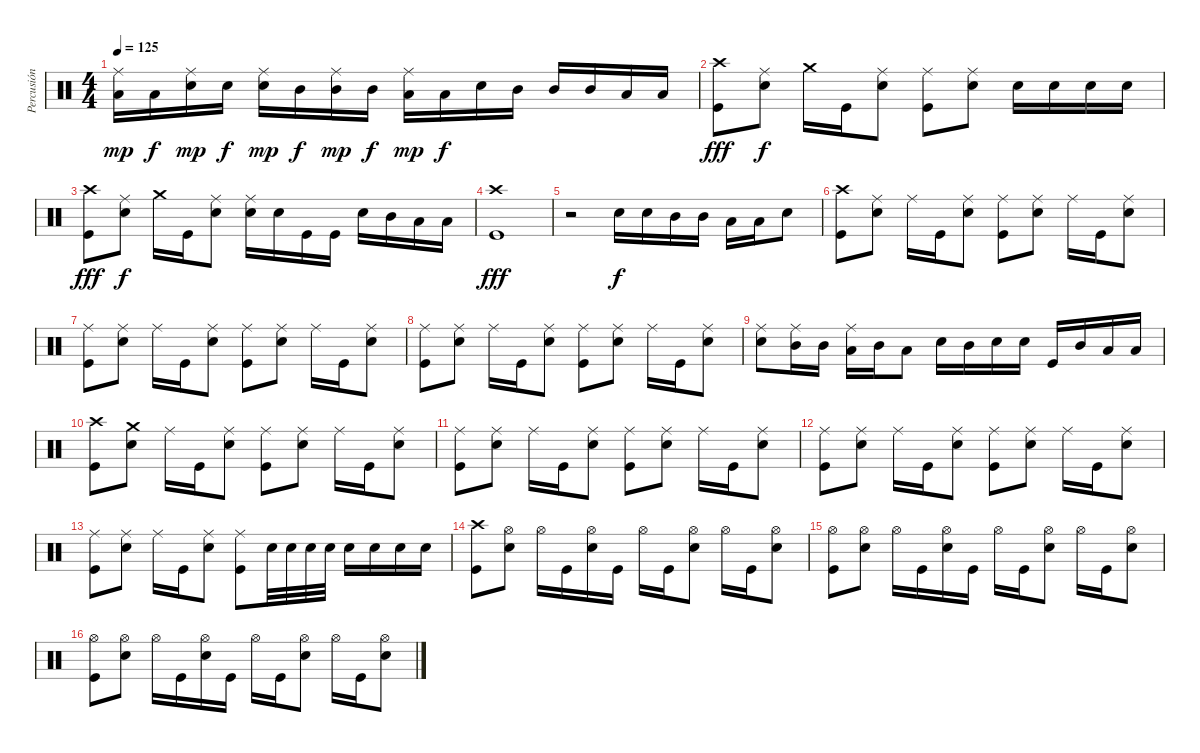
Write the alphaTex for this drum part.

\track ("Percusión" "Percusión") {instrument percussion}
\staff {score}
\articulation defaults
\ts (4 4)
\tempo 125
\clef neutral
\ks c
("Low Tom (hit)" "Ride (middle)").16{dy mp} "Low Tom (hit)".16{dy f} ("Snare (hit) 2" "Ride (middle)").16{dy mp} "Snare (hit) 2".16{dy f} ("Snare (hit) 2" "Ride (middle)").16{dy mp} "Mid Tom (hit)".16{dy f} ("Mid Tom (hit)" "Ride (middle)").16{dy mp} "Mid Tom (hit)".16{dy f} ("Low Tom (hit)" "Ride (middle)").16{dy mp} "Low Tom (hit)".16{dy f} "Snare (hit) 2".16 "Mid Tom (hit)".16 "Mid Tom (hit)".16 "Mid Tom (hit)".16 "Low Tom (hit)".16 "Low Tom (hit)".16 |
("Kick (hit)" "Crash high (hit)").8{dy fff} ("Snare (hit) 2" "Ride (middle)").8{dy f} "Crash medium (hit)".16 "Kick (hit)".16 ("Snare (hit) 2" "Ride (middle)").8 ("Kick (hit)" "Ride (middle)").8 ("Snare (hit) 2" "Ride (middle)").8 "Snare (hit) 2".16 "Snare (hit) 2".16 "Snare (hit) 2".16 "Snare (hit) 2".16 |
("Kick (hit)" "Crash high (hit)").8{dy fff} ("Snare (hit) 2" "Ride (middle)").8{dy f} "Crash medium (hit)".16 "Kick (hit)".16 ("Snare (hit) 2" "Ride (middle)").8 ("Snare (hit) 2" "Ride (middle)").16 "Snare (hit) 2".16 "Kick (hit)".16 "Kick (hit)".16 "Snare (hit) 2".16 "Mid Tom (hit)".16 "Low Tom (hit)".16 "Low Tom (hit)".16 |
("Kick (hit)" "Crash high (hit)").1{dy fff} |
r.2 "Snare (hit) 2".16{dy f} "Snare (hit) 2".16 "Mid Tom (hit)".16 "Mid Tom (hit)".16 "Low Tom (hit)".16 "Low Tom (hit)".16 "Snare (hit) 2".8 |
("Kick (hit)" "Crash high (hit)").8 ("Snare (hit) 2" "Ride (middle)").8 "Ride (middle)".16 "Kick (hit)".16 ("Snare (hit) 2" "Ride (middle)").8 ("Kick (hit)" "Ride (middle)").8 ("Snare (hit) 2" "Ride (middle)").8 "Ride (middle)".16 "Kick (hit)".16 ("Snare (hit) 2" "Ride (middle)").8 |
("Kick (hit)" "Ride (middle)").8 ("Snare (hit) 2" "Ride (middle)").8 "Ride (middle)".16 "Kick (hit)".16 ("Snare (hit) 2" "Ride (middle)").8 ("Kick (hit)" "Ride (middle)").8 ("Snare (hit) 2" "Ride (middle)").8 "Ride (middle)".16 "Kick (hit)".16 ("Snare (hit) 2" "Ride (middle)").8 |
("Kick (hit)" "Ride (middle)").8 ("Snare (hit) 2" "Ride (middle)").8 "Ride (middle)".16 "Kick (hit)".16 ("Snare (hit) 2" "Ride (middle)").8 ("Kick (hit)" "Ride (middle)").8 ("Snare (hit) 2" "Ride (middle)").8 "Ride (middle)".16 "Kick (hit)".16 ("Snare (hit) 2" "Ride (middle)").8 |
("Snare (hit) 2" "Ride (middle)").8 ("Mid Tom (hit)" "Ride (middle)").16 "Mid Tom (hit)".16 ("Low Tom (hit)" "Ride (middle)").16 "Mid Tom (hit)".16 "Low Tom (hit)".8 "Snare (hit) 2".16 "Mid Tom (hit)".16 "Snare (hit) 2".16 "Snare (hit) 2".16 "Kick (hit)".16 "Mid Tom (hit)".16 "Low Tom (hit)".16 "Low Tom (hit)".16 |
("Kick (hit)" "Crash high (hit)").8 ("Snare (hit) 2" "Crash medium (hit)").8 "Ride (middle)".16 "Kick (hit)".16 ("Snare (hit) 2" "Ride (middle)").8 ("Kick (hit)" "Ride (middle)").8 ("Snare (hit) 2" "Ride (middle)").8 "Ride (middle)".16 "Kick (hit)".16 ("Snare (hit) 2" "Ride (middle)").8 |
("Kick (hit)" "Ride (middle)").8 ("Snare (hit) 2" "Ride (middle)").8 "Ride (middle)".16 "Kick (hit)".16 ("Snare (hit) 2" "Ride (middle)").8 ("Kick (hit)" "Ride (middle)").8 ("Snare (hit) 2" "Ride (middle)").8 "Ride (middle)".16 "Kick (hit)".16 ("Snare (hit) 2" "Ride (middle)").8 |
("Kick (hit)" "Ride (middle)").8 ("Snare (hit) 2" "Ride (middle)").8 "Ride (middle)".16 "Kick (hit)".16 ("Snare (hit) 2" "Ride (middle)").8 ("Kick (hit)" "Ride (middle)").8 ("Snare (hit) 2" "Ride (middle)").8 "Ride (middle)".16 "Kick (hit)".16 ("Snare (hit) 2" "Ride (middle)").8 |
("Kick (hit)" "Ride (middle)").8 ("Snare (hit) 2" "Ride (middle)").8 "Ride (middle)".16 "Kick (hit)".16 ("Snare (hit) 2" "Ride (middle)").8 ("Kick (hit)" "Ride (middle)").8 "Snare (hit) 2".32 "Snare (hit) 2".32 "Snare (hit) 2".32 "Snare (hit) 2".32 "Snare (hit) 2".16 "Snare (hit) 2".16 "Snare (hit) 2".16 "Snare (hit) 2".16 |
("Kick (hit)" "Crash high (hit)").8 ("Snare (hit) 2" "Hi-Hat (open)").8 "Hi-Hat (open)".16 "Kick (hit)".16 ("Snare (hit) 2" "Hi-Hat (open)").16 "Kick (hit)".16 "Hi-Hat (open)".16 "Kick (hit)".16 ("Snare (hit) 2" "Hi-Hat (open)").8 "Hi-Hat (open)".16 "Kick (hit)".16 ("Snare (hit) 2" "Hi-Hat (open)").8 |
("Kick (hit)" "Hi-Hat (open)").8 ("Snare (hit) 2" "Hi-Hat (open)").8 "Hi-Hat (open)".16 "Kick (hit)".16 ("Snare (hit) 2" "Hi-Hat (open)").16 "Kick (hit)".16 "Hi-Hat (open)".16 "Kick (hit)".16 ("Snare (hit) 2" "Hi-Hat (open)").8 "Hi-Hat (open)".16 "Kick (hit)".16 ("Snare (hit) 2" "Hi-Hat (open)").8 |
("Kick (hit)" "Hi-Hat (open)").8 ("Snare (hit) 2" "Hi-Hat (open)").8 "Hi-Hat (open)".16 "Kick (hit)".16 ("Snare (hit) 2" "Hi-Hat (open)").16 "Kick (hit)".16 "Hi-Hat (open)".16 "Kick (hit)".16 ("Snare (hit) 2" "Hi-Hat (open)").8 "Hi-Hat (open)".16 "Kick (hit)".16 ("Snare (hit) 2" "Hi-Hat (open)").8
